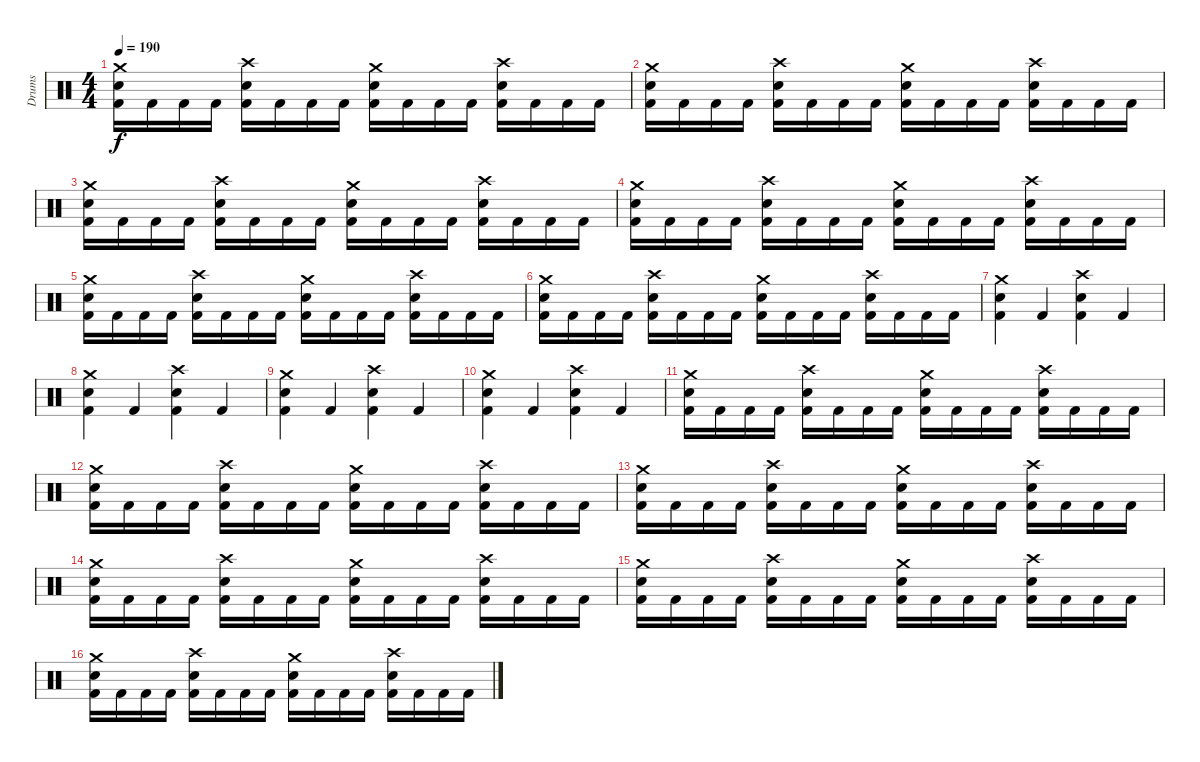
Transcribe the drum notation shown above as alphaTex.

\track ("Drums" "Drums") {instrument percussion}
\staff {score}
\articulation defaults
\ts (4 4)
\tempo 190
\clef neutral
\ks c
("Crash medium (hit)" "Kick (hit) 2" "Snare (hit) 2").16{dy f} "Kick (hit) 2".16 "Kick (hit) 2".16 "Kick (hit) 2".16 ("Crash high (hit)" "Kick (hit) 2" "Snare (hit) 2").16 "Kick (hit) 2".16 "Kick (hit) 2".16 "Kick (hit) 2".16 ("Crash medium (hit)" "Kick (hit) 2" "Snare (hit) 2").16 "Kick (hit) 2".16 "Kick (hit) 2".16 "Kick (hit) 2".16 ("Crash high (hit)" "Kick (hit) 2" "Snare (hit) 2").16 "Kick (hit) 2".16 "Kick (hit) 2".16 "Kick (hit) 2".16 |
("Crash medium (hit)" "Kick (hit) 2" "Snare (hit) 2").16 "Kick (hit) 2".16 "Kick (hit) 2".16 "Kick (hit) 2".16 ("Crash high (hit)" "Kick (hit) 2" "Snare (hit) 2").16 "Kick (hit) 2".16 "Kick (hit) 2".16 "Kick (hit) 2".16 ("Crash medium (hit)" "Kick (hit) 2" "Snare (hit) 2").16 "Kick (hit) 2".16 "Kick (hit) 2".16 "Kick (hit) 2".16 ("Crash high (hit)" "Kick (hit) 2" "Snare (hit) 2").16 "Kick (hit) 2".16 "Kick (hit) 2".16 "Kick (hit) 2".16 |
("Crash medium (hit)" "Kick (hit) 2" "Snare (hit) 2").16 "Kick (hit) 2".16 "Kick (hit) 2".16 "Kick (hit) 2".16 ("Crash high (hit)" "Kick (hit) 2" "Snare (hit) 2").16 "Kick (hit) 2".16 "Kick (hit) 2".16 "Kick (hit) 2".16 ("Crash medium (hit)" "Kick (hit) 2" "Snare (hit) 2").16 "Kick (hit) 2".16 "Kick (hit) 2".16 "Kick (hit) 2".16 ("Crash high (hit)" "Kick (hit) 2" "Snare (hit) 2").16 "Kick (hit) 2".16 "Kick (hit) 2".16 "Kick (hit) 2".16 |
("Crash medium (hit)" "Kick (hit) 2" "Snare (hit) 2").16 "Kick (hit) 2".16 "Kick (hit) 2".16 "Kick (hit) 2".16 ("Crash high (hit)" "Kick (hit) 2" "Snare (hit) 2").16 "Kick (hit) 2".16 "Kick (hit) 2".16 "Kick (hit) 2".16 ("Crash medium (hit)" "Kick (hit) 2" "Snare (hit) 2").16 "Kick (hit) 2".16 "Kick (hit) 2".16 "Kick (hit) 2".16 ("Crash high (hit)" "Kick (hit) 2" "Snare (hit) 2").16 "Kick (hit) 2".16 "Kick (hit) 2".16 "Kick (hit) 2".16 |
("Crash medium (hit)" "Kick (hit) 2" "Snare (hit) 2").16 "Kick (hit) 2".16 "Kick (hit) 2".16 "Kick (hit) 2".16 ("Crash high (hit)" "Kick (hit) 2" "Snare (hit) 2").16 "Kick (hit) 2".16 "Kick (hit) 2".16 "Kick (hit) 2".16 ("Crash medium (hit)" "Kick (hit) 2" "Snare (hit) 2").16 "Kick (hit) 2".16 "Kick (hit) 2".16 "Kick (hit) 2".16 ("Crash high (hit)" "Kick (hit) 2" "Snare (hit) 2").16 "Kick (hit) 2".16 "Kick (hit) 2".16 "Kick (hit) 2".16 |
("Crash medium (hit)" "Kick (hit) 2" "Snare (hit) 2").16 "Kick (hit) 2".16 "Kick (hit) 2".16 "Kick (hit) 2".16 ("Crash high (hit)" "Kick (hit) 2" "Snare (hit) 2").16 "Kick (hit) 2".16 "Kick (hit) 2".16 "Kick (hit) 2".16 ("Crash medium (hit)" "Kick (hit) 2" "Snare (hit) 2").16 "Kick (hit) 2".16 "Kick (hit) 2".16 "Kick (hit) 2".16 ("Crash high (hit)" "Kick (hit) 2" "Snare (hit) 2").16 "Kick (hit) 2".16 "Kick (hit) 2".16 "Kick (hit) 2".16 |
("Crash medium (hit)" "Kick (hit) 2" "Snare (hit) 2").4 "Kick (hit) 2".4 ("Crash high (hit)" "Kick (hit) 2" "Snare (hit) 2").4 "Kick (hit) 2".4 |
("Crash medium (hit)" "Kick (hit) 2" "Snare (hit) 2").4 "Kick (hit) 2".4 ("Crash high (hit)" "Kick (hit) 2" "Snare (hit) 2").4 "Kick (hit) 2".4 |
("Crash medium (hit)" "Kick (hit) 2" "Snare (hit) 2").4 "Kick (hit) 2".4 ("Crash high (hit)" "Kick (hit) 2" "Snare (hit) 2").4 "Kick (hit) 2".4 |
("Crash medium (hit)" "Kick (hit) 2" "Snare (hit) 2").4 "Kick (hit) 2".4 ("Crash high (hit)" "Kick (hit) 2" "Snare (hit) 2").4 "Kick (hit) 2".4 |
("Crash medium (hit)" "Kick (hit) 2" "Snare (hit) 2").16 "Kick (hit) 2".16 "Kick (hit) 2".16 "Kick (hit) 2".16 ("Crash high (hit)" "Kick (hit) 2" "Snare (hit) 2").16 "Kick (hit) 2".16 "Kick (hit) 2".16 "Kick (hit) 2".16 ("Crash medium (hit)" "Kick (hit) 2" "Snare (hit) 2").16 "Kick (hit) 2".16 "Kick (hit) 2".16 "Kick (hit) 2".16 ("Crash high (hit)" "Kick (hit) 2" "Snare (hit) 2").16 "Kick (hit) 2".16 "Kick (hit) 2".16 "Kick (hit) 2".16 |
("Crash medium (hit)" "Kick (hit) 2" "Snare (hit) 2").16 "Kick (hit) 2".16 "Kick (hit) 2".16 "Kick (hit) 2".16 ("Crash high (hit)" "Kick (hit) 2" "Snare (hit) 2").16 "Kick (hit) 2".16 "Kick (hit) 2".16 "Kick (hit) 2".16 ("Crash medium (hit)" "Kick (hit) 2" "Snare (hit) 2").16 "Kick (hit) 2".16 "Kick (hit) 2".16 "Kick (hit) 2".16 ("Crash high (hit)" "Kick (hit) 2" "Snare (hit) 2").16 "Kick (hit) 2".16 "Kick (hit) 2".16 "Kick (hit) 2".16 |
("Crash medium (hit)" "Kick (hit) 2" "Snare (hit) 2").16 "Kick (hit) 2".16 "Kick (hit) 2".16 "Kick (hit) 2".16 ("Crash high (hit)" "Kick (hit) 2" "Snare (hit) 2").16 "Kick (hit) 2".16 "Kick (hit) 2".16 "Kick (hit) 2".16 ("Crash medium (hit)" "Kick (hit) 2" "Snare (hit) 2").16 "Kick (hit) 2".16 "Kick (hit) 2".16 "Kick (hit) 2".16 ("Crash high (hit)" "Kick (hit) 2" "Snare (hit) 2").16 "Kick (hit) 2".16 "Kick (hit) 2".16 "Kick (hit) 2".16 |
("Crash medium (hit)" "Kick (hit) 2" "Snare (hit) 2").16 "Kick (hit) 2".16 "Kick (hit) 2".16 "Kick (hit) 2".16 ("Crash high (hit)" "Kick (hit) 2" "Snare (hit) 2").16 "Kick (hit) 2".16 "Kick (hit) 2".16 "Kick (hit) 2".16 ("Crash medium (hit)" "Kick (hit) 2" "Snare (hit) 2").16 "Kick (hit) 2".16 "Kick (hit) 2".16 "Kick (hit) 2".16 ("Crash high (hit)" "Kick (hit) 2" "Snare (hit) 2").16 "Kick (hit) 2".16 "Kick (hit) 2".16 "Kick (hit) 2".16 |
("Crash medium (hit)" "Kick (hit) 2" "Snare (hit) 2").16 "Kick (hit) 2".16 "Kick (hit) 2".16 "Kick (hit) 2".16 ("Crash high (hit)" "Kick (hit) 2" "Snare (hit) 2").16 "Kick (hit) 2".16 "Kick (hit) 2".16 "Kick (hit) 2".16 ("Crash medium (hit)" "Kick (hit) 2" "Snare (hit) 2").16 "Kick (hit) 2".16 "Kick (hit) 2".16 "Kick (hit) 2".16 ("Crash high (hit)" "Kick (hit) 2" "Snare (hit) 2").16 "Kick (hit) 2".16 "Kick (hit) 2".16 "Kick (hit) 2".16 |
("Crash medium (hit)" "Kick (hit) 2" "Snare (hit) 2").16 "Kick (hit) 2".16 "Kick (hit) 2".16 "Kick (hit) 2".16 ("Crash high (hit)" "Kick (hit) 2" "Snare (hit) 2").16 "Kick (hit) 2".16 "Kick (hit) 2".16 "Kick (hit) 2".16 ("Crash medium (hit)" "Kick (hit) 2" "Snare (hit) 2").16 "Kick (hit) 2".16 "Kick (hit) 2".16 "Kick (hit) 2".16 ("Crash high (hit)" "Kick (hit) 2" "Snare (hit) 2").16 "Kick (hit) 2".16 "Kick (hit) 2".16 "Kick (hit) 2".16
